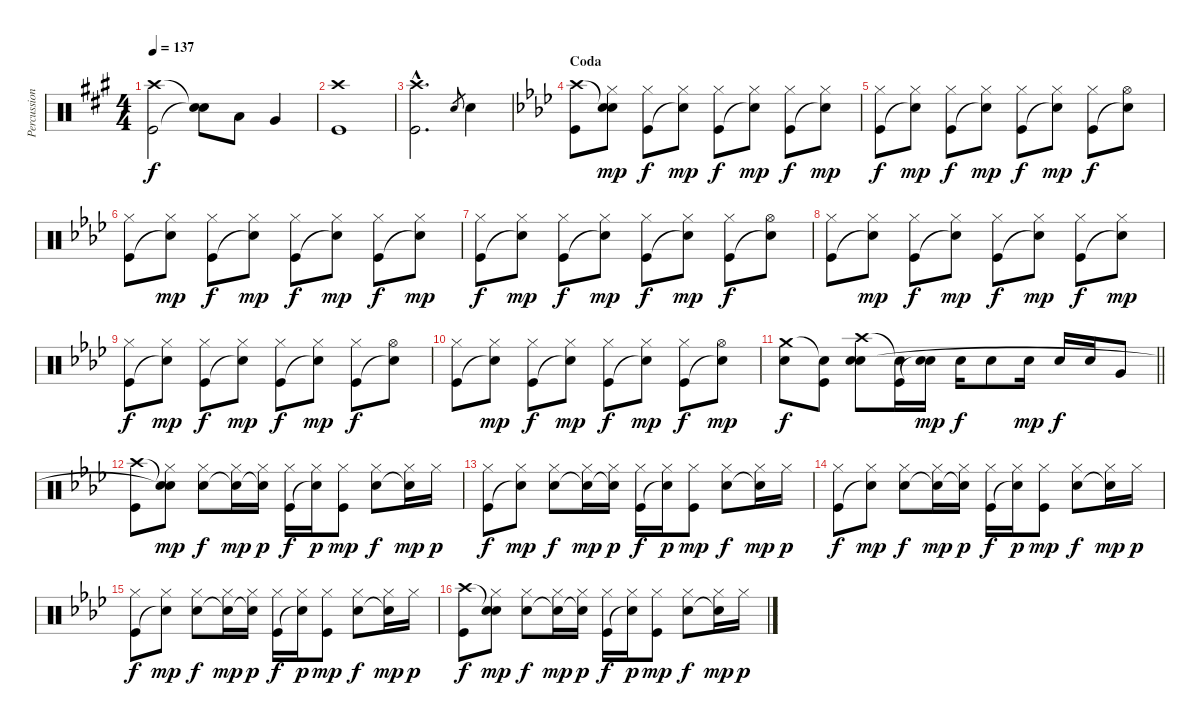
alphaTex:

\track ("Percussion" "Percussion") {instrument percussion}
\staff {score}
\articulation defaults
\ts (4 4)
\tempo 137
\clef neutral
\ks a
("Crash high (hit)" "Kick (hit)").2{dy f} ("Snare (hit)"{t} "Snare (hit)"{t}).8 "Low Tom (hit)".8 "Very Low Tom (hit)".4 |
("Crash high (hit)" "Kick (hit)").1 |
("Crash high (hit)"{hac} "Kick (hit)"{hac}).2{d} "Electric Snare (hit)".8{gr} "Electric Snare (hit)".4 |
\section ("" "Coda")
\ks ab
("Crash high (hit)" "Kick (hit)").8 ("Snare (hit)"{t} "Hi-Hat (closed)" "Snare (hit)").8{dy mp} ("Hi-Hat (closed)" "Kick (hit)").8{dy f} ("Hi-Hat (closed)" "Snare (hit)"{t}).8{dy mp} ("Hi-Hat (closed)" "Kick (hit)").8{dy f} ("Hi-Hat (closed)" "Snare (hit)"{t}).8{dy mp} ("Hi-Hat (closed)" "Kick (hit)").8{dy f} ("Hi-Hat (closed)" "Snare (hit)"{t}).8{dy mp} |
("Hi-Hat (closed)" "Kick (hit)").8{dy f} ("Hi-Hat (closed)" "Snare (hit)"{t}).8{dy mp} ("Hi-Hat (closed)" "Kick (hit)").8{dy f} ("Hi-Hat (closed)" "Snare (hit)"{t}).8{dy mp} ("Hi-Hat (closed)" "Kick (hit)").8{dy f} ("Hi-Hat (closed)" "Snare (hit)"{t}).8{dy mp} ("Hi-Hat (closed)" "Kick (hit)").8{dy f} ("Hi-Hat (open)" "Snare (hit)"{t}).8 |
("Hi-Hat (closed)" "Kick (hit)").8 ("Hi-Hat (closed)" "Snare (hit)"{t}).8{dy mp} ("Hi-Hat (closed)" "Kick (hit)").8{dy f} ("Hi-Hat (closed)" "Snare (hit)"{t}).8{dy mp} ("Hi-Hat (closed)" "Kick (hit)").8{dy f} ("Hi-Hat (closed)" "Snare (hit)"{t}).8{dy mp} ("Hi-Hat (closed)" "Kick (hit)").8{dy f} ("Hi-Hat (closed)" "Snare (hit)"{t}).8{dy mp} |
("Hi-Hat (closed)" "Kick (hit)").8{dy f} ("Hi-Hat (closed)" "Snare (hit)"{t}).8{dy mp} ("Hi-Hat (closed)" "Kick (hit)").8{dy f} ("Hi-Hat (closed)" "Snare (hit)"{t}).8{dy mp} ("Hi-Hat (closed)" "Kick (hit)").8{dy f} ("Hi-Hat (closed)" "Snare (hit)"{t}).8{dy mp} ("Hi-Hat (closed)" "Kick (hit)").8{dy f} ("Hi-Hat (open)" "Snare (hit)"{t}).8 |
("Hi-Hat (closed)" "Kick (hit)").8 ("Hi-Hat (closed)" "Snare (hit)"{t}).8{dy mp} ("Hi-Hat (closed)" "Kick (hit)").8{dy f} ("Hi-Hat (closed)" "Snare (hit)"{t}).8{dy mp} ("Hi-Hat (closed)" "Kick (hit)").8{dy f} ("Hi-Hat (closed)" "Snare (hit)"{t}).8{dy mp} ("Hi-Hat (closed)" "Kick (hit)").8{dy f} ("Hi-Hat (closed)" "Snare (hit)"{t}).8{dy mp} |
("Hi-Hat (closed)" "Kick (hit)").8{dy f} ("Hi-Hat (closed)" "Snare (hit)"{t}).8{dy mp} ("Hi-Hat (closed)" "Kick (hit)").8{dy f} ("Hi-Hat (closed)" "Snare (hit)"{t}).8{dy mp} ("Hi-Hat (closed)" "Kick (hit)").8{dy f} ("Hi-Hat (closed)" "Snare (hit)"{t}).8{dy mp} ("Hi-Hat (closed)" "Kick (hit)").8{dy f} ("Hi-Hat (open)" "Snare (hit)"{t}).8 |
("Hi-Hat (closed)" "Kick (hit)").8 ("Hi-Hat (closed)" "Snare (hit)"{t}).8{dy mp} ("Hi-Hat (closed)" "Kick (hit)").8{dy f} ("Hi-Hat (closed)" "Snare (hit)"{t}).8{dy mp} ("Hi-Hat (closed)" "Kick (hit)").8{dy f} ("Hi-Hat (closed)" "Snare (hit)"{t}).8{dy mp} ("Hi-Hat (closed)" "Kick (hit)").8{dy f} ("Hi-Hat (open)" "Snare (hit)"{t}).8{dy mp} |
\barLineRight lightlight
("Crash medium (hit)" "Electric Snare (hit)").8{dy f} ("Snare (hit)"{t} "Kick (hit)").8 ("Crash high (hit)" "Electric Snare (hit)" "Snare (hit)").8 ("Snare (hit)"{t} "Kick (hit)").16 ("Electric Snare (hit)" "Snare (hit)"{t}).16{dy mp} "Electric Snare (hit)".16{dy f} "Electric Snare (hit)".8 "Electric Snare (hit)".16{dy mp} "Electric Snare (hit)".16{dy f} "Electric Snare (hit)".16 "Very Low Tom (hit)".8 |
("Crash high (hit)" "Kick (hit)").8 ("Snare (hit)"{t} "Hi-Hat (closed)" "Snare (hit)"{t}).8{dy mp} ("Hi-Hat (closed)" "Electric Snare (hit)").8{dy f} ("Hi-Hat (closed)" "Electric Snare (hit)"{t}).16{dy mp} ("Hi-Hat (closed)" "Snare (hit)"{t}).16{dy p} ("Hi-Hat (closed)" "Kick (hit)").16{dy f} ("Hi-Hat (closed)" "Snare (hit)"{t}).16{dy p} ("Hi-Hat (closed)" "Kick (hit)").8{dy mp} ("Hi-Hat (closed)" "Electric Snare (hit)").8{dy f} ("Hi-Hat (closed)" "Snare (hit)"{t}).16{dy mp} "Hi-Hat (closed)".16{dy p} |
("Hi-Hat (closed)" "Kick (hit)").8{dy f} ("Hi-Hat (closed)" "Snare (hit)"{t}).8{dy mp} ("Hi-Hat (closed)" "Electric Snare (hit)").8{dy f} ("Hi-Hat (closed)" "Electric Snare (hit)"{t}).16{dy mp} ("Hi-Hat (closed)" "Snare (hit)"{t}).16{dy p} ("Hi-Hat (closed)" "Kick (hit)").16{dy f} ("Hi-Hat (closed)" "Snare (hit)"{t}).16{dy p} ("Hi-Hat (closed)" "Kick (hit)").8{dy mp} ("Hi-Hat (closed)" "Electric Snare (hit)").8{dy f} ("Hi-Hat (closed)" "Snare (hit)"{t}).16{dy mp} "Hi-Hat (closed)".16{dy p} |
("Hi-Hat (closed)" "Kick (hit)").8{dy f} ("Hi-Hat (closed)" "Snare (hit)"{t}).8{dy mp} ("Hi-Hat (closed)" "Electric Snare (hit)").8{dy f} ("Hi-Hat (closed)" "Electric Snare (hit)"{t}).16{dy mp} ("Hi-Hat (closed)" "Snare (hit)"{t}).16{dy p} ("Hi-Hat (closed)" "Kick (hit)").16{dy f} ("Hi-Hat (closed)" "Snare (hit)"{t}).16{dy p} ("Hi-Hat (closed)" "Kick (hit)").8{dy mp} ("Hi-Hat (closed)" "Electric Snare (hit)").8{dy f} ("Hi-Hat (closed)" "Snare (hit)"{t}).16{dy mp} "Hi-Hat (closed)".16{dy p} |
("Hi-Hat (closed)" "Kick (hit)").8{dy f} ("Hi-Hat (closed)" "Snare (hit)"{t}).8{dy mp} ("Hi-Hat (closed)" "Electric Snare (hit)").8{dy f} ("Hi-Hat (closed)" "Electric Snare (hit)"{t}).16{dy mp} ("Hi-Hat (closed)" "Snare (hit)"{t}).16{dy p} ("Hi-Hat (closed)" "Kick (hit)").16{dy f} ("Hi-Hat (closed)" "Snare (hit)"{t}).16{dy p} ("Hi-Hat (closed)" "Kick (hit)").8{dy mp} ("Hi-Hat (closed)" "Electric Snare (hit)").8{dy f} ("Hi-Hat (closed)" "Snare (hit)"{t}).16{dy mp} "Hi-Hat (closed)".16{dy p} |
("Crash high (hit)" "Kick (hit)").8{dy f} ("Snare (hit)"{t} "Hi-Hat (closed)" "Snare (hit)").8{dy mp} ("Hi-Hat (closed)" "Electric Snare (hit)").8{dy f} ("Hi-Hat (closed)" "Electric Snare (hit)"{t}).16{dy mp} ("Hi-Hat (closed)" "Snare (hit)"{t}).16{dy p} ("Hi-Hat (closed)" "Kick (hit)").16{dy f} ("Hi-Hat (closed)" "Snare (hit)"{t}).16{dy p} ("Hi-Hat (closed)" "Kick (hit)").8{dy mp} ("Hi-Hat (closed)" "Electric Snare (hit)").8{dy f} ("Hi-Hat (closed)" "Snare (hit)"{t}).16{dy mp} "Hi-Hat (closed)".16{dy p}
